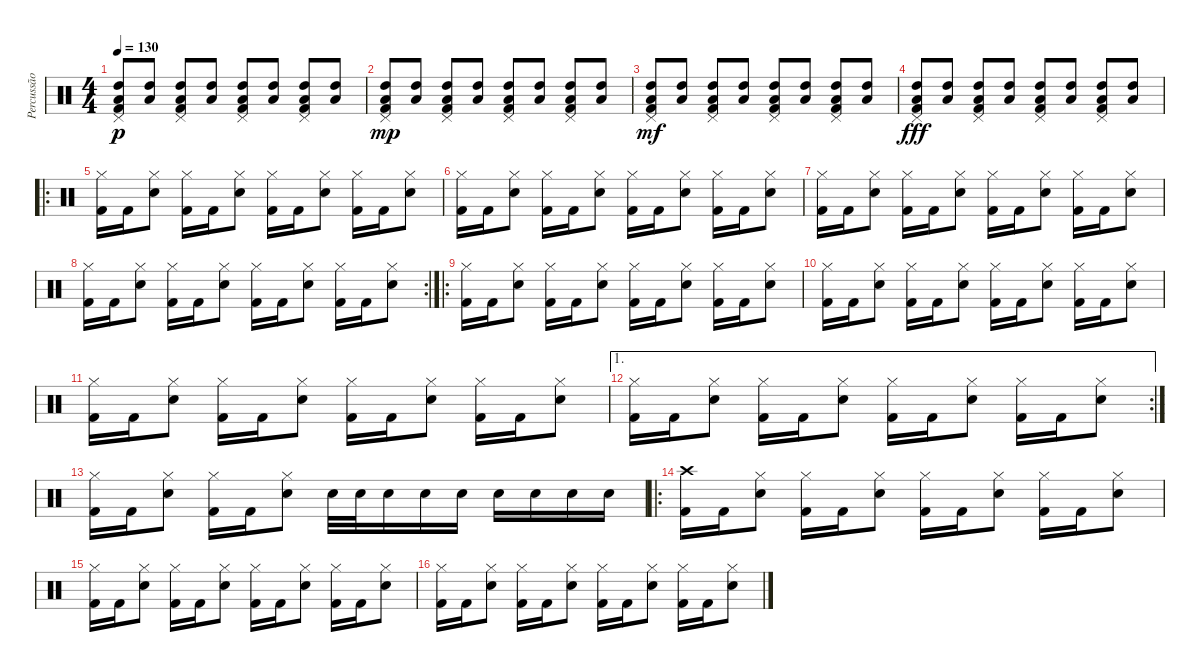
\track ("Percussão" "Percussão") {instrument percussion}
\staff {score}
\articulation defaults
\ts (4 4)
\tempo 130
\clef neutral
\ks c
("Low Tom (hit)" "High Tom (hit)" "Kick (hit) 2" "Pedal Hi-Hat (hit)").8{dy p} ("Low Tom (hit)" "High Tom (hit)").8 ("Low Tom (hit)" "High Tom (hit)" "Kick (hit) 2" "Pedal Hi-Hat (hit)").8 ("Low Tom (hit)" "High Tom (hit)").8 ("Low Tom (hit)" "High Tom (hit)" "Kick (hit) 2" "Pedal Hi-Hat (hit)").8 ("Low Tom (hit)" "High Tom (hit)").8 ("Low Tom (hit)" "High Tom (hit)" "Kick (hit) 2" "Pedal Hi-Hat (hit)").8 ("Low Tom (hit)" "High Tom (hit)").8 |
("Low Tom (hit)" "High Tom (hit)" "Kick (hit) 2" "Pedal Hi-Hat (hit)").8{dy mp} ("Low Tom (hit)" "High Tom (hit)").8 ("Low Tom (hit)" "High Tom (hit)" "Kick (hit) 2" "Pedal Hi-Hat (hit)").8 ("Low Tom (hit)" "High Tom (hit)").8 ("Low Tom (hit)" "High Tom (hit)" "Kick (hit) 2" "Pedal Hi-Hat (hit)").8 ("Low Tom (hit)" "High Tom (hit)").8 ("Low Tom (hit)" "High Tom (hit)" "Kick (hit) 2" "Pedal Hi-Hat (hit)").8 ("Low Tom (hit)" "High Tom (hit)").8 |
("Low Tom (hit)" "High Tom (hit)" "Kick (hit) 2" "Pedal Hi-Hat (hit)").8{dy mf} ("Low Tom (hit)" "High Tom (hit)").8 ("Low Tom (hit)" "High Tom (hit)" "Kick (hit) 2" "Pedal Hi-Hat (hit)").8 ("Low Tom (hit)" "High Tom (hit)").8 ("Low Tom (hit)" "High Tom (hit)" "Kick (hit) 2" "Pedal Hi-Hat (hit)").8 ("Low Tom (hit)" "High Tom (hit)").8 ("Low Tom (hit)" "High Tom (hit)" "Kick (hit) 2" "Pedal Hi-Hat (hit)").8 ("Low Tom (hit)" "High Tom (hit)").8 |
("Low Tom (hit)" "High Tom (hit)" "Kick (hit) 2" "Pedal Hi-Hat (hit)").8{dy fff} ("Low Tom (hit)" "High Tom (hit)").8 ("Low Tom (hit)" "High Tom (hit)" "Kick (hit) 2" "Pedal Hi-Hat (hit)").8 ("Low Tom (hit)" "High Tom (hit)").8 ("Low Tom (hit)" "High Tom (hit)" "Kick (hit) 2" "Pedal Hi-Hat (hit)").8 ("Low Tom (hit)" "High Tom (hit)").8 ("Low Tom (hit)" "High Tom (hit)" "Kick (hit) 2" "Pedal Hi-Hat (hit)").8 ("Low Tom (hit)" "High Tom (hit)").8 |
\ro
("Hi-Hat (closed)" "Kick (hit) 2").16 "Kick (hit) 2".16 ("Hi-Hat (closed)" "Snare (hit) 2").8 ("Hi-Hat (closed)" "Kick (hit) 2").16 "Kick (hit) 2".16 ("Hi-Hat (closed)" "Snare (hit) 2").8 ("Hi-Hat (closed)" "Kick (hit) 2").16 "Kick (hit) 2".16 ("Hi-Hat (closed)" "Snare (hit) 2").8 ("Hi-Hat (closed)" "Kick (hit) 2").16 "Kick (hit) 2".16 ("Hi-Hat (closed)" "Snare (hit) 2").8 |
("Hi-Hat (closed)" "Kick (hit) 2").16 "Kick (hit) 2".16 ("Hi-Hat (closed)" "Snare (hit) 2").8 ("Hi-Hat (closed)" "Kick (hit) 2").16 "Kick (hit) 2".16 ("Hi-Hat (closed)" "Snare (hit) 2").8 ("Hi-Hat (closed)" "Kick (hit) 2").16 "Kick (hit) 2".16 ("Hi-Hat (closed)" "Snare (hit) 2").8 ("Hi-Hat (closed)" "Kick (hit) 2").16 "Kick (hit) 2".16 ("Hi-Hat (closed)" "Snare (hit) 2").8 |
("Hi-Hat (closed)" "Kick (hit) 2").16 "Kick (hit) 2".16 ("Hi-Hat (closed)" "Snare (hit) 2").8 ("Hi-Hat (closed)" "Kick (hit) 2").16 "Kick (hit) 2".16 ("Hi-Hat (closed)" "Snare (hit) 2").8 ("Hi-Hat (closed)" "Kick (hit) 2").16 "Kick (hit) 2".16 ("Hi-Hat (closed)" "Snare (hit) 2").8 ("Hi-Hat (closed)" "Kick (hit) 2").16 "Kick (hit) 2".16 ("Hi-Hat (closed)" "Snare (hit) 2").8 |
\rc 2
("Hi-Hat (closed)" "Kick (hit) 2").16 "Kick (hit) 2".16 ("Hi-Hat (closed)" "Snare (hit) 2").8 ("Hi-Hat (closed)" "Kick (hit) 2").16 "Kick (hit) 2".16 ("Hi-Hat (closed)" "Snare (hit) 2").8 ("Hi-Hat (closed)" "Kick (hit) 2").16 "Kick (hit) 2".16 ("Hi-Hat (closed)" "Snare (hit) 2").8 ("Hi-Hat (closed)" "Kick (hit) 2").16 "Kick (hit) 2".16 ("Hi-Hat (closed)" "Snare (hit) 2").8 |
\ro
("Hi-Hat (closed)" "Kick (hit) 2").16 "Kick (hit) 2".16 ("Hi-Hat (closed)" "Snare (hit) 2").8 ("Hi-Hat (closed)" "Kick (hit) 2").16 "Kick (hit) 2".16 ("Hi-Hat (closed)" "Snare (hit) 2").8 ("Hi-Hat (closed)" "Kick (hit) 2").16 "Kick (hit) 2".16 ("Hi-Hat (closed)" "Snare (hit) 2").8 ("Hi-Hat (closed)" "Kick (hit) 2").16 "Kick (hit) 2".16 ("Hi-Hat (closed)" "Snare (hit) 2").8 |
("Hi-Hat (closed)" "Kick (hit) 2").16 "Kick (hit) 2".16 ("Hi-Hat (closed)" "Snare (hit) 2").8 ("Hi-Hat (closed)" "Kick (hit) 2").16 "Kick (hit) 2".16 ("Hi-Hat (closed)" "Snare (hit) 2").8 ("Hi-Hat (closed)" "Kick (hit) 2").16 "Kick (hit) 2".16 ("Hi-Hat (closed)" "Snare (hit) 2").8 ("Hi-Hat (closed)" "Kick (hit) 2").16 "Kick (hit) 2".16 ("Hi-Hat (closed)" "Snare (hit) 2").8 |
("Hi-Hat (closed)" "Kick (hit) 2").16 "Kick (hit) 2".16 ("Hi-Hat (closed)" "Snare (hit) 2").8 ("Hi-Hat (closed)" "Kick (hit) 2").16 "Kick (hit) 2".16 ("Hi-Hat (closed)" "Snare (hit) 2").8 ("Hi-Hat (closed)" "Kick (hit) 2").16 "Kick (hit) 2".16 ("Hi-Hat (closed)" "Snare (hit) 2").8 ("Hi-Hat (closed)" "Kick (hit) 2").16 "Kick (hit) 2".16 ("Hi-Hat (closed)" "Snare (hit) 2").8 |
\ae 1
\rc 2
("Hi-Hat (closed)" "Kick (hit) 2").16 "Kick (hit) 2".16 ("Hi-Hat (closed)" "Snare (hit) 2").8 ("Hi-Hat (closed)" "Kick (hit) 2").16 "Kick (hit) 2".16 ("Hi-Hat (closed)" "Snare (hit) 2").8 ("Hi-Hat (closed)" "Kick (hit) 2").16 "Kick (hit) 2".16 ("Hi-Hat (closed)" "Snare (hit) 2").8 ("Hi-Hat (closed)" "Kick (hit) 2").16 "Kick (hit) 2".16 ("Hi-Hat (closed)" "Snare (hit) 2").8 |
("Hi-Hat (closed)" "Kick (hit) 2").16 "Kick (hit) 2".16 ("Hi-Hat (closed)" "Snare (hit) 2").8 ("Hi-Hat (closed)" "Kick (hit) 2").16 "Kick (hit) 2".16 ("Hi-Hat (closed)" "Snare (hit) 2").8 "Snare (hit) 2".32 "Snare (hit) 2".32 "Snare (hit) 2".16 "Snare (hit) 2".16 "Snare (hit) 2".16 "Snare (hit) 2".16 "Snare (hit) 2".16 "Snare (hit) 2".16 "Snare (hit) 2".16 |
\ro
("Crash high (hit)" "Kick (hit) 2").16 "Kick (hit) 2".16 ("Hi-Hat (closed)" "Snare (hit) 2").8 ("Hi-Hat (closed)" "Kick (hit) 2").16 "Kick (hit) 2".16 ("Hi-Hat (closed)" "Snare (hit) 2").8 ("Hi-Hat (closed)" "Kick (hit) 2").16 "Kick (hit) 2".16 ("Hi-Hat (closed)" "Snare (hit) 2").8 ("Hi-Hat (closed)" "Kick (hit) 2").16 "Kick (hit) 2".16 ("Hi-Hat (closed)" "Snare (hit) 2").8 |
("Hi-Hat (closed)" "Kick (hit) 2").16 "Kick (hit) 2".16 ("Hi-Hat (closed)" "Snare (hit) 2").8 ("Hi-Hat (closed)" "Kick (hit) 2").16 "Kick (hit) 2".16 ("Hi-Hat (closed)" "Snare (hit) 2").8 ("Hi-Hat (closed)" "Kick (hit) 2").16 "Kick (hit) 2".16 ("Hi-Hat (closed)" "Snare (hit) 2").8 ("Hi-Hat (closed)" "Kick (hit) 2").16 "Kick (hit) 2".16 ("Hi-Hat (closed)" "Snare (hit) 2").8 |
("Hi-Hat (closed)" "Kick (hit) 2").16 "Kick (hit) 2".16 ("Hi-Hat (closed)" "Snare (hit) 2").8 ("Hi-Hat (closed)" "Kick (hit) 2").16 "Kick (hit) 2".16 ("Hi-Hat (closed)" "Snare (hit) 2").8 ("Hi-Hat (closed)" "Kick (hit) 2").16 "Kick (hit) 2".16 ("Hi-Hat (closed)" "Snare (hit) 2").8 ("Hi-Hat (closed)" "Kick (hit) 2").16 "Kick (hit) 2".16 ("Hi-Hat (closed)" "Snare (hit) 2").8
